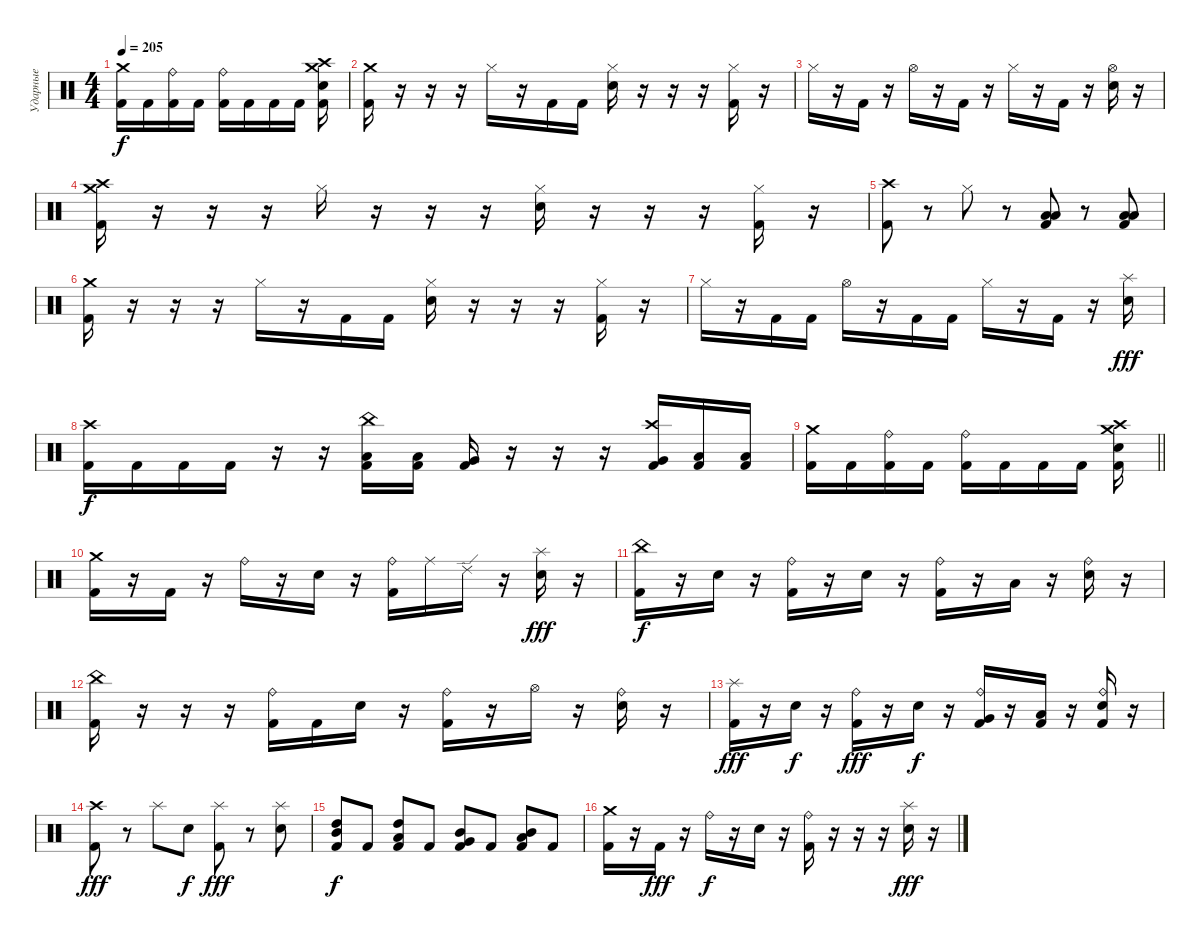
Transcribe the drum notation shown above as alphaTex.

\track ("Ударные" "Ударные") {instrument percussion}
\staff {score}
\articulation defaults
\ts (4 4)
\tempo 205
\clef neutral
\ks c
("Crash medium (hit)" "Kick (hit) 2").16{dy f} "Kick (hit) 2".16 ("Ride (bell)" "Kick (hit) 2").16 "Kick (hit) 2".16 ("Ride (bell)" "Kick (hit) 2").16 "Kick (hit) 2".16 "Kick (hit) 2".16 "Kick (hit) 2".16 ("Crash medium (hit)" "Crash high (hit)" "Snare (hit) 2" "Kick (hit) 2").16 |
("Crash medium (hit)" "Kick (hit) 2").16 r.16 r.16 r.16 "Hi-Hat (closed)".16 r.16 "Kick (hit) 2".16 "Kick (hit) 2".16 ("Hi-Hat (closed)" "Snare (hit) 2").16 r.16 r.16 r.16 ("Hi-Hat (closed)" "Kick (hit) 2").16 r.16 |
"Hi-Hat (closed)".16 r.16 "Kick (hit) 2".16 r.16 "Hi-Hat (open)".16 r.16 "Kick (hit) 2".16 r.16 "Hi-Hat (closed)".16 r.16 "Kick (hit) 2".16 r.16 ("Hi-Hat (open)" "Snare (hit) 2").16 r.16 |
("Crash medium (hit)" "Crash high (hit)" "Kick (hit) 2").16 r.16 r.16 r.16 "Hi-Hat (closed)".16 r.16 r.16 r.16 ("Hi-Hat (closed)" "Snare (hit) 2").16 r.16 r.16 r.16 ("Hi-Hat (closed)" "Kick (hit) 2").16 r.16 |
("Crash high (hit)" "Kick (hit) 2").8 r.8 "Hi-Hat (closed)".8 r.8 ("Low Tom (hit)" "Low Floor Tom (hit)" "Kick (hit) 2").8 r.8 ("Low Tom (hit)" "Low Floor Tom (hit)" "Kick (hit) 2").8 |
("Crash medium (hit)" "Kick (hit) 2").16 r.16 r.16 r.16 "Hi-Hat (closed)".16 r.16 "Kick (hit) 2".16 "Kick (hit) 2".16 ("Hi-Hat (closed)" "Snare (hit) 2").16 r.16 r.16 r.16 ("Hi-Hat (closed)" "Kick (hit) 2").16 r.16 |
"Hi-Hat (closed)".16 r.16 "Kick (hit) 2".16 "Kick (hit) 2".16 "Hi-Hat (open)".16 r.16 "Kick (hit) 2".16 "Kick (hit) 2".16 "Hi-Hat (closed)".16 r.16 "Kick (hit) 2".16 r.16 ("Splash (hit)" "Snare (hit) 2").16{dy fff} |
("Crash high (hit)" "Kick (hit) 2").16{dy f} "Kick (hit) 2".16 "Kick (hit) 2".16 "Kick (hit) 2".16 r.16 r.16 ("China (hit)" "Low Tom (hit)" "Kick (hit) 2").16 ("Low Floor Tom (hit)" "Kick (hit) 2").16 ("Very Low Tom (hit)" "Kick (hit) 2").16 r.16 r.16 r.16 ("Crash high (hit)" "Very Low Tom (hit)" "Kick (hit) 2").16 ("Low Floor Tom (hit)" "Kick (hit) 2").16 ("Low Tom (hit)" "Kick (hit) 2").16 |
\barLineRight lightlight
("Crash medium (hit)" "Kick (hit) 2").16 "Kick (hit) 2".16 ("Ride (bell)" "Kick (hit) 2").16 "Kick (hit) 2".16 ("Ride (bell)" "Kick (hit) 2").16 "Kick (hit) 2".16 "Kick (hit) 2".16 "Kick (hit) 2".16 ("Crash medium (hit)" "Crash high (hit)" "Snare (hit) 2" "Kick (hit) 2").16 |
("Crash medium (hit)" "Kick (hit) 2").16 r.16 "Kick (hit) 2".16 r.16 "Ride (bell)".16 r.16 "Snare (hit) 2".16 r.16 ("Ride (bell)" "Kick (hit) 2").16 "Ride (middle)".16 "Ride (edge) 2".16 r.16 ("Splash (hit)" "Snare (hit) 2").16{dy fff} r.16 |
("China (hit)" "Kick (hit) 2").16{dy f} r.16 "Snare (hit) 2".16 r.16 ("Ride (bell)" "Kick (hit) 2").16 r.16 "Snare (hit) 2".16 r.16 ("Ride (bell)" "Kick (hit) 2").16 r.16 "Low Tom (hit)".16 r.16 ("Ride (bell)" "Snare (hit) 2").16 r.16 |
("China (hit)" "Kick (hit) 2").16 r.16 r.16 r.16 ("Ride (bell)" "Kick (hit) 2").16 "Kick (hit) 2".16 "Snare (hit) 2".16 r.16 ("Ride (bell)" "Kick (hit) 2").16 r.16 "Hi-Hat (open)".16 r.16 ("Ride (bell)" "Snare (hit) 2").16 r.16 |
("Splash (hit)" "Kick (hit) 2").16{dy fff} r.16 "Snare (hit) 2".16{dy f} r.16 ("Ride (bell)" "Kick (hit) 2").16{dy fff} r.16 "Snare (hit) 2".16{dy f} r.16 ("Ride (bell)" "Very Low Tom (hit)" "Kick (hit) 2").16 r.16 ("Low Tom (hit)" "Kick (hit) 2").16 r.16 ("Ride (bell)" "Snare (hit) 2" "Kick (hit) 2").16 r.16 |
("Crash high (hit)" "Kick (hit) 2").8{dy fff} r.8 "Splash (hit)".8 "Snare (hit) 2".8{dy f} ("Splash (hit)" "Kick (hit) 2").8{dy fff} r.8 ("Splash (hit)" "Snare (hit) 2").8 |
("High Tom (hit)" "Mid Tom (hit)" "Kick (hit) 2").8{dy f} "Kick (hit) 2".8 ("High Tom (hit)" "Low Tom (hit)" "Kick (hit) 2").8 "Kick (hit) 2".8 ("Mid Tom (hit)" "Very Low Tom (hit)" "Kick (hit) 2").8 "Kick (hit) 2".8 ("Mid Tom (hit)" "Low Tom (hit)" "Kick (hit) 2").8 "Kick (hit) 2".8 |
("Crash medium (hit)" "Kick (hit) 2").16 r.16 "Kick (hit) 2".16{dy fff} r.16 "Ride (bell)".16{dy f} r.16 "Snare (hit) 2".16 r.16 ("Ride (bell)" "Kick (hit) 2").16 r.16 r.16 r.16 ("Splash (hit)" "Snare (hit) 2").16{dy fff} r.16
